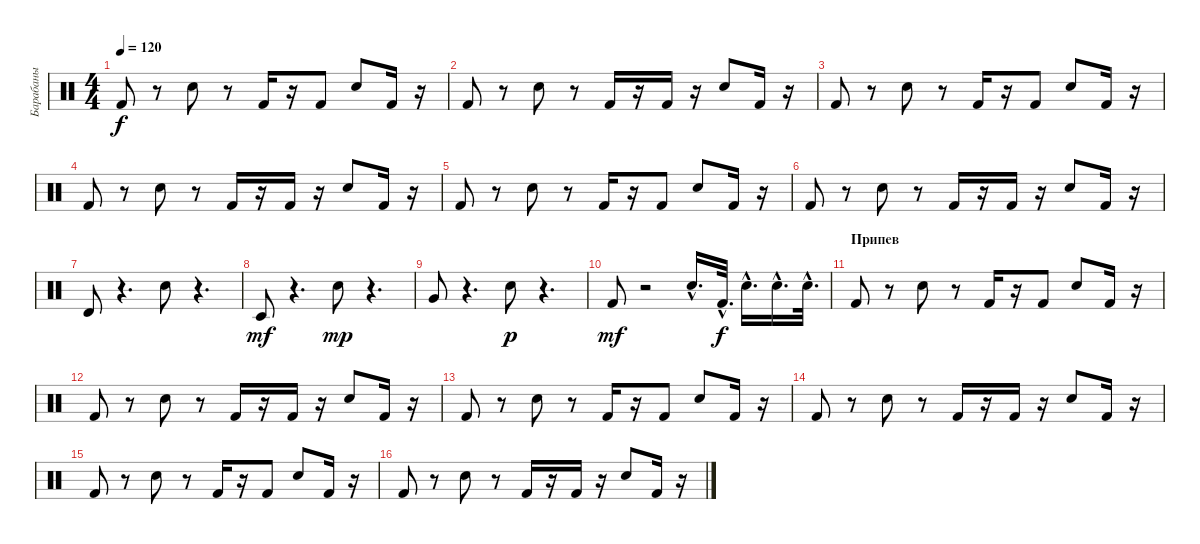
\track ("Барабаны" "Барабаны") {instrument percussion}
\staff {score}
\articulation defaults
\ts (4 4)
\tempo 120
\clef neutral
\ks c "Kick (hit) 2".8{dy f}
r.8 "Electric Snare (hit)".8 r.8 "Kick (hit) 2".16 r.16 "Kick (hit) 2".8 "Electric Snare (hit)".8 "Kick (hit) 2".16 r.16 |
"Kick (hit) 2".8 r.8 "Electric Snare (hit)".8 r.8 "Kick (hit) 2".16 r.16 "Kick (hit) 2".16 r.16 "Electric Snare (hit)".8 "Kick (hit) 2".16 r.16 |
"Kick (hit) 2".8 r.8 "Electric Snare (hit)".8 r.8 "Kick (hit) 2".16 r.16 "Kick (hit) 2".8 "Electric Snare (hit)".8 "Kick (hit) 2".16 r.16 |
"Kick (hit) 2".8 r.8 "Electric Snare (hit)".8 r.8 "Kick (hit) 2".16 r.16 "Kick (hit) 2".16 r.16 "Electric Snare (hit)".8 "Kick (hit) 2".16 r.16 |
"Kick (hit) 2".8 r.8 "Electric Snare (hit)".8 r.8 "Kick (hit) 2".16 r.16 "Kick (hit) 2".8 "Electric Snare (hit)".8 "Kick (hit) 2".16 r.16 |
"Kick (hit) 2".8 r.8 "Electric Snare (hit)".8 r.8 "Kick (hit) 2".16 r.16 "Kick (hit) 2".16 r.16 "Electric Snare (hit)".8 "Kick (hit) 2".16 r.16 |
"Timbale high (hit)".8 r.4{d} "Electric Snare (hit)".8 r.4{d} |
"Timbale low (hit)".8{dy mf} r.4{d} "Electric Snare (hit)".8{dy mp} r.4{d} |
"Very Low Tom (hit)".8 r.4{d} "Electric Snare (hit)".8{dy p} r.4{d} |
"Kick (hit) 2".8{dy mf} r.2 "Electric Snare (hit)"{hac}.16{d} "Kick (hit) 2"{hac}.32{d dy f} "Electric Snare (hit)"{hac}.16{d} "Electric Snare (hit)"{hac}.16{d} "Electric Snare (hit)"{hac}.32{d} |
\section ("" "Припев")
"Kick (hit) 2".8 r.8 "Electric Snare (hit)".8 r.8 "Kick (hit) 2".16 r.16 "Kick (hit) 2".8 "Electric Snare (hit)".8 "Kick (hit) 2".16 r.16 |
"Kick (hit) 2".8 r.8 "Electric Snare (hit)".8 r.8 "Kick (hit) 2".16 r.16 "Kick (hit) 2".16 r.16 "Electric Snare (hit)".8 "Kick (hit) 2".16 r.16 |
"Kick (hit) 2".8 r.8 "Electric Snare (hit)".8 r.8 "Kick (hit) 2".16 r.16 "Kick (hit) 2".8 "Electric Snare (hit)".8 "Kick (hit) 2".16 r.16 |
"Kick (hit) 2".8 r.8 "Electric Snare (hit)".8 r.8 "Kick (hit) 2".16 r.16 "Kick (hit) 2".16 r.16 "Electric Snare (hit)".8 "Kick (hit) 2".16 r.16 |
"Kick (hit) 2".8 r.8 "Electric Snare (hit)".8 r.8 "Kick (hit) 2".16 r.16 "Kick (hit) 2".8 "Electric Snare (hit)".8 "Kick (hit) 2".16 r.16 |
"Kick (hit) 2".8 r.8 "Electric Snare (hit)".8 r.8 "Kick (hit) 2".16 r.16 "Kick (hit) 2".16 r.16 "Electric Snare (hit)".8 "Kick (hit) 2".16 r.16
